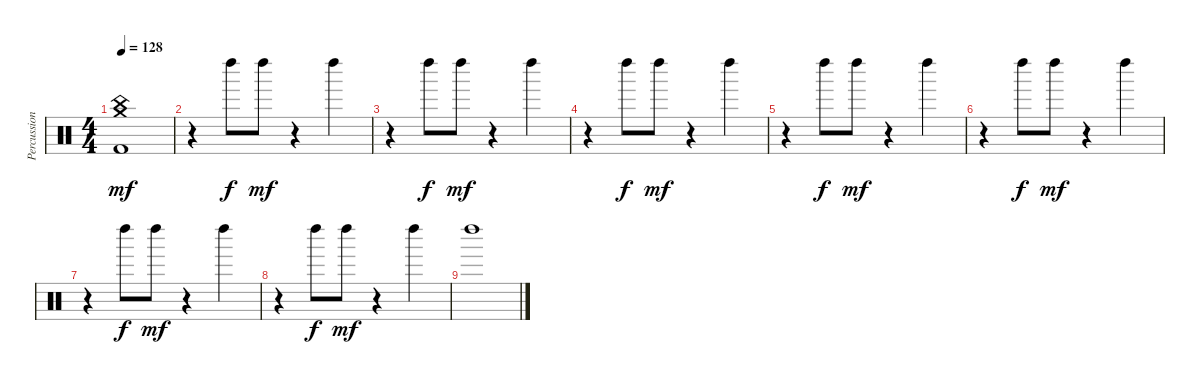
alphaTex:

\track ("Percussion" "Percussion") {instrument percussion}
\staff {score}
\articulation defaults
\ts (4 4)
\tempo 128
\clef neutral
\ks c
("Crash medium (hit)" "China (hit)" "Kick (hit) 2").1{dy mf} |
r.4 "Left Maraca (hit)".8{dy f} "Left Maraca (hit)".8{dy mf} r.4 "Left Maraca (hit)".4 |
r.4 "Left Maraca (hit)".8{dy f} "Left Maraca (hit)".8{dy mf} r.4 "Left Maraca (hit)".4 |
r.4 "Left Maraca (hit)".8{dy f} "Left Maraca (hit)".8{dy mf} r.4 "Left Maraca (hit)".4 |
r.4 "Left Maraca (hit)".8{dy f} "Left Maraca (hit)".8{dy mf} r.4 "Left Maraca (hit)".4 |
r.4 "Left Maraca (hit)".8{dy f} "Left Maraca (hit)".8{dy mf} r.4 "Left Maraca (hit)".4 |
r.4 "Left Maraca (hit)".8{dy f} "Left Maraca (hit)".8{dy mf} r.4 "Left Maraca (hit)".4 |
r.4 "Left Maraca (hit)".8{dy f} "Left Maraca (hit)".8{dy mf} r.4 "Left Maraca (hit)".4 |
"Left Maraca (hit)".1
